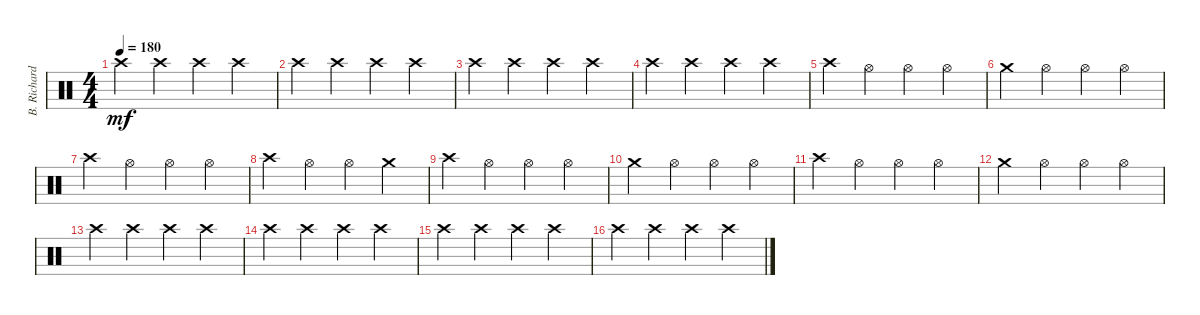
\track ("B. Richardson Drums" "B. Richard") {instrument percussion}
\staff {score}
\articulation defaults
\ts (4 4)
\tempo 180
\clef neutral
\ks c "Crash high (hit)".4{dy mf} "Crash high (hit)".4 "Crash high (hit)".4 "Crash high (hit)".4
|
"Crash high (hit)".4 "Crash high (hit)".4 "Crash high (hit)".4 "Crash high (hit)".4 |
"Crash high (hit)".4 "Crash high (hit)".4 "Crash high (hit)".4 "Crash high (hit)".4 |
"Crash high (hit)".4 "Crash high (hit)".4 "Crash high (hit)".4 "Crash high (hit)".4 |
"Crash high (hit)".4 "Hi-Hat (open)".4 "Hi-Hat (open)".4 "Hi-Hat (open)".4 |
"Crash medium (hit)".4 "Hi-Hat (open)".4 "Hi-Hat (open)".4 "Hi-Hat (open)".4 |
"Crash high (hit)".4 "Hi-Hat (open)".4 "Hi-Hat (open)".4 "Hi-Hat (open)".4 |
"Crash high (hit)".4 "Hi-Hat (open)".4 "Hi-Hat (open)".4 "Crash medium (hit)".4 |
"Crash high (hit)".4 "Hi-Hat (open)".4 "Hi-Hat (open)".4 "Hi-Hat (open)".4 |
"Crash medium (hit)".4 "Hi-Hat (open)".4 "Hi-Hat (open)".4 "Hi-Hat (open)".4 |
"Crash high (hit)".4 "Hi-Hat (open)".4 "Hi-Hat (open)".4 "Hi-Hat (open)".4 |
"Crash medium (hit)".4 "Hi-Hat (open)".4 "Hi-Hat (open)".4 "Hi-Hat (open)".4 |
"Crash high (hit)".4 "Crash high (hit)".4 "Crash high (hit)".4 "Crash high (hit)".4 |
"Crash high (hit)".4 "Crash high (hit)".4 "Crash high (hit)".4 "Crash high (hit)".4 |
"Crash high (hit)".4 "Crash high (hit)".4 "Crash high (hit)".4 "Crash high (hit)".4 |
"Crash high (hit)".4 "Crash high (hit)".4 "Crash high (hit)".4 "Crash high (hit)".4
